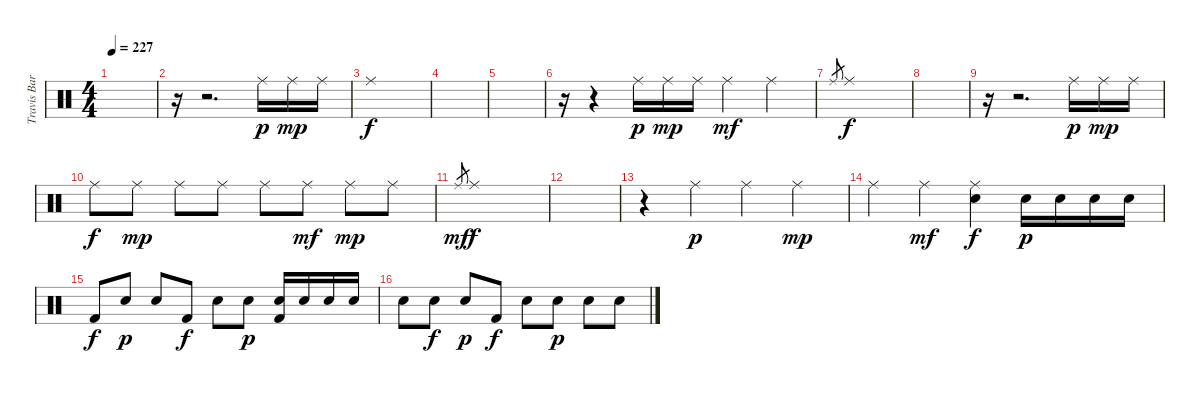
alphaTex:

\track ("Travis Barker - Batería" "Travis Bar") {instrument percussion}
\staff {score}
\articulation defaults
\ts (4 4)
\tempo 227
\clef neutral
\ks c
|
r.16 r.2{d} "Ride (middle)".16{dy p} "Ride (middle)".16{dy mp} "Ride (middle)".16 |
"Ride (middle)".1{dy f} |
|
|
r.16 r.4 "Ride (middle)".16{dy p} "Ride (middle)".16{dy mp} "Ride (middle)".16 "Ride (middle)".4{dy mf} "Ride (middle)".4 |
"Ride (middle)".8{gr} "Ride (middle)".1{dy f} |
|
r.16 r.2{d} "Ride (middle)".16{dy p} "Ride (middle)".16{dy mp} "Ride (middle)".16 |
"Ride (middle)".8{dy f} "Ride (middle)".8{dy mp} "Ride (middle)".8 "Ride (middle)".8 "Ride (middle)".8 "Ride (middle)".8{dy mf} "Ride (middle)".8{dy mp} "Ride (middle)".8 |
"Ride (middle)".8{gr dy mf} "Ride (middle)".1{dy f} |
|
r.4 "Ride (middle)".4{dy p} "Ride (middle)".4 "Ride (middle)".4{dy mp} |
"Ride (middle)".4 "Ride (middle)".4{dy mf} ("Ride (middle)" "Electric Snare (hit)").4{dy f} "Electric Snare (hit)".16{dy p} "Electric Snare (hit)".16 "Electric Snare (hit)".16 "Electric Snare (hit)".16 |
"Kick (hit) 2".8{dy f} "Electric Snare (hit)".8{dy p} "Electric Snare (hit)".8 "Kick (hit) 2".8{dy f} "Electric Snare (hit)".8 "Electric Snare (hit)".8{dy p} ("Electric Snare (hit)" "Kick (hit) 2").16 "Electric Snare (hit)".16 "Electric Snare (hit)".16 "Electric Snare (hit)".16 |
"Electric Snare (hit)".8 "Electric Snare (hit)".8{dy f} "Electric Snare (hit)".8{dy p} "Kick (hit) 2".8{dy f} "Electric Snare (hit)".8 "Electric Snare (hit)".8{dy p} "Electric Snare (hit)".8 "Electric Snare (hit)".8
